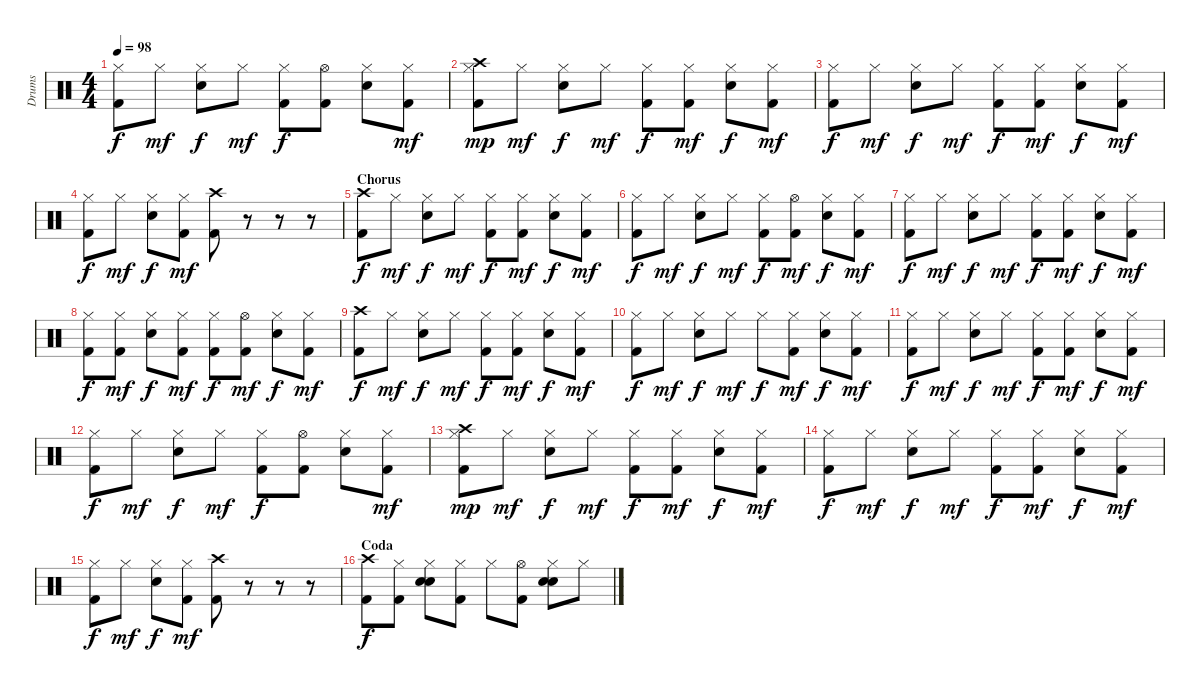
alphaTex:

\track ("Drums" "Drums") {instrument percussion}
\staff {score}
\articulation defaults
\ts (4 4)
\tempo 98
\clef neutral
\ks c
("Hi-Hat (closed)" "Kick (hit) 2").8{dy f} "Hi-Hat (closed)".8{dy mf} ("Hi-Hat (closed)" "Snare (hit) 2").8{dy f} "Hi-Hat (closed)".8{dy mf} ("Hi-Hat (closed)" "Kick (hit) 2").8{dy f} ("Hi-Hat (open)" "Kick (hit) 2").8 ("Hi-Hat (closed)" "Snare (hit) 2").8 ("Hi-Hat (closed)" "Kick (hit) 2").8{dy mf} |
("Crash high (hit)" "Hi-Hat (closed)" "Kick (hit) 2").8{dy mp} "Hi-Hat (closed)".8{dy mf} ("Hi-Hat (closed)" "Snare (hit) 2").8{dy f} "Hi-Hat (closed)".8{dy mf} ("Hi-Hat (closed)" "Kick (hit) 2").8{dy f} ("Hi-Hat (closed)" "Kick (hit) 2").8{dy mf} ("Hi-Hat (closed)" "Snare (hit) 2").8{dy f} ("Hi-Hat (closed)" "Kick (hit) 2").8{dy mf} |
("Hi-Hat (closed)" "Kick (hit) 2").8{dy f} "Hi-Hat (closed)".8{dy mf} ("Hi-Hat (closed)" "Snare (hit) 2").8{dy f} "Hi-Hat (closed)".8{dy mf} ("Hi-Hat (closed)" "Kick (hit) 2").8{dy f} ("Hi-Hat (closed)" "Kick (hit) 2").8{dy mf} ("Hi-Hat (closed)" "Snare (hit) 2").8{dy f} ("Hi-Hat (closed)" "Kick (hit) 2").8{dy mf} |
("Hi-Hat (closed)" "Kick (hit) 2").8{dy f} "Hi-Hat (closed)".8{dy mf} ("Hi-Hat (closed)" "Snare (hit) 2").8{dy f} ("Hi-Hat (closed)" "Kick (hit) 2").8{dy mf} ("Crash high (hit)" "Kick (hit) 2").8 r.8 r.8 r.8 |
\section ("" "Chorus")
("Crash high (hit)" "Kick (hit) 2").8{dy f} "Hi-Hat (closed)".8{dy mf} ("Hi-Hat (closed)" "Snare (hit) 2").8{dy f} "Hi-Hat (closed)".8{dy mf} ("Hi-Hat (closed)" "Kick (hit) 2").8{dy f} ("Hi-Hat (closed)" "Kick (hit) 2").8{dy mf} ("Hi-Hat (closed)" "Snare (hit) 2").8{dy f} ("Hi-Hat (closed)" "Kick (hit) 2").8{dy mf} |
("Hi-Hat (closed)" "Kick (hit) 2").8{dy f} "Hi-Hat (closed)".8{dy mf} ("Hi-Hat (closed)" "Snare (hit) 2").8{dy f} "Hi-Hat (closed)".8{dy mf} ("Hi-Hat (closed)" "Kick (hit) 2").8{dy f} ("Hi-Hat (open)" "Kick (hit) 2").8{dy mf} ("Hi-Hat (closed)" "Snare (hit) 2").8{dy f} ("Hi-Hat (closed)" "Kick (hit) 2").8{dy mf} |
("Hi-Hat (closed)" "Kick (hit) 2").8{dy f} "Hi-Hat (closed)".8{dy mf} ("Hi-Hat (closed)" "Snare (hit) 2").8{dy f} "Hi-Hat (closed)".8{dy mf} ("Hi-Hat (closed)" "Kick (hit) 2").8{dy f} ("Hi-Hat (closed)" "Kick (hit) 2").8{dy mf} ("Hi-Hat (closed)" "Snare (hit) 2").8{dy f} ("Hi-Hat (closed)" "Kick (hit) 2").8{dy mf} |
("Hi-Hat (closed)" "Kick (hit) 2").8{dy f} ("Hi-Hat (closed)" "Kick (hit) 2").8{dy mf} ("Hi-Hat (closed)" "Snare (hit) 2").8{dy f} ("Hi-Hat (closed)" "Kick (hit) 2").8{dy mf} ("Hi-Hat (closed)" "Kick (hit) 2").8{dy f} ("Hi-Hat (open)" "Kick (hit) 2").8{dy mf} ("Hi-Hat (closed)" "Snare (hit) 2").8{dy f} ("Hi-Hat (closed)" "Kick (hit) 2").8{dy mf} |
("Crash high (hit)" "Kick (hit) 2").8{dy f} "Hi-Hat (closed)".8{dy mf} ("Hi-Hat (closed)" "Snare (hit) 2").8{dy f} "Hi-Hat (closed)".8{dy mf} ("Hi-Hat (closed)" "Kick (hit) 2").8{dy f} ("Hi-Hat (closed)" "Kick (hit) 2").8{dy mf} ("Hi-Hat (closed)" "Snare (hit) 2").8{dy f} ("Hi-Hat (closed)" "Kick (hit) 2").8{dy mf} |
("Hi-Hat (closed)" "Kick (hit) 2").8{dy f} "Hi-Hat (closed)".8{dy mf} ("Hi-Hat (closed)" "Snare (hit) 2").8{dy f} "Hi-Hat (closed)".8{dy mf} "Hi-Hat (closed)".8{dy f} ("Hi-Hat (closed)" "Kick (hit) 2").8{dy mf} ("Hi-Hat (closed)" "Snare (hit) 2").8{dy f} ("Hi-Hat (closed)" "Kick (hit) 2").8{dy mf} |
("Hi-Hat (closed)" "Kick (hit) 2").8{dy f} "Hi-Hat (closed)".8{dy mf} ("Hi-Hat (closed)" "Snare (hit) 2").8{dy f} "Hi-Hat (closed)".8{dy mf} ("Hi-Hat (closed)" "Kick (hit) 2").8{dy f} ("Hi-Hat (closed)" "Kick (hit) 2").8{dy mf} ("Hi-Hat (closed)" "Snare (hit) 2").8{dy f} ("Hi-Hat (closed)" "Kick (hit) 2").8{dy mf} |
("Hi-Hat (closed)" "Kick (hit) 2").8{dy f} "Hi-Hat (closed)".8{dy mf} ("Hi-Hat (closed)" "Snare (hit) 2").8{dy f} "Hi-Hat (closed)".8{dy mf} ("Hi-Hat (closed)" "Kick (hit) 2").8{dy f} ("Hi-Hat (open)" "Kick (hit) 2").8 ("Hi-Hat (closed)" "Snare (hit) 2").8 ("Hi-Hat (closed)" "Kick (hit) 2").8{dy mf} |
("Crash high (hit)" "Hi-Hat (closed)" "Kick (hit) 2").8{dy mp} "Hi-Hat (closed)".8{dy mf} ("Hi-Hat (closed)" "Snare (hit) 2").8{dy f} "Hi-Hat (closed)".8{dy mf} ("Hi-Hat (closed)" "Kick (hit) 2").8{dy f} ("Hi-Hat (closed)" "Kick (hit) 2").8{dy mf} ("Hi-Hat (closed)" "Snare (hit) 2").8{dy f} ("Hi-Hat (closed)" "Kick (hit) 2").8{dy mf} |
("Hi-Hat (closed)" "Kick (hit) 2").8{dy f} "Hi-Hat (closed)".8{dy mf} ("Hi-Hat (closed)" "Snare (hit) 2").8{dy f} "Hi-Hat (closed)".8{dy mf} ("Hi-Hat (closed)" "Kick (hit) 2").8{dy f} ("Hi-Hat (closed)" "Kick (hit) 2").8{dy mf} ("Hi-Hat (closed)" "Snare (hit) 2").8{dy f} ("Hi-Hat (closed)" "Kick (hit) 2").8{dy mf} |
("Hi-Hat (closed)" "Kick (hit) 2").8{dy f} "Hi-Hat (closed)".8{dy mf} ("Hi-Hat (closed)" "Snare (hit) 2").8{dy f} ("Hi-Hat (closed)" "Kick (hit) 2").8{dy mf} ("Crash high (hit)" "Kick (hit) 2").8 r.8 r.8 r.8 |
\section ("" "Coda")
("Crash high (hit)" "Kick (hit) 2").8{dy f} ("Hi-Hat (closed)" "Kick (hit) 2").8 ("Hand Clap (hit)" "Hi-Hat (closed)" "Snare (hit) 2").8 ("Hi-Hat (closed)" "Kick (hit) 2").8 "Hi-Hat (closed)".8 ("Hi-Hat (open)" "Kick (hit) 2").8 ("Hand Clap (hit)" "Hi-Hat (closed)" "Snare (hit) 2").8 "Hi-Hat (closed)".8
